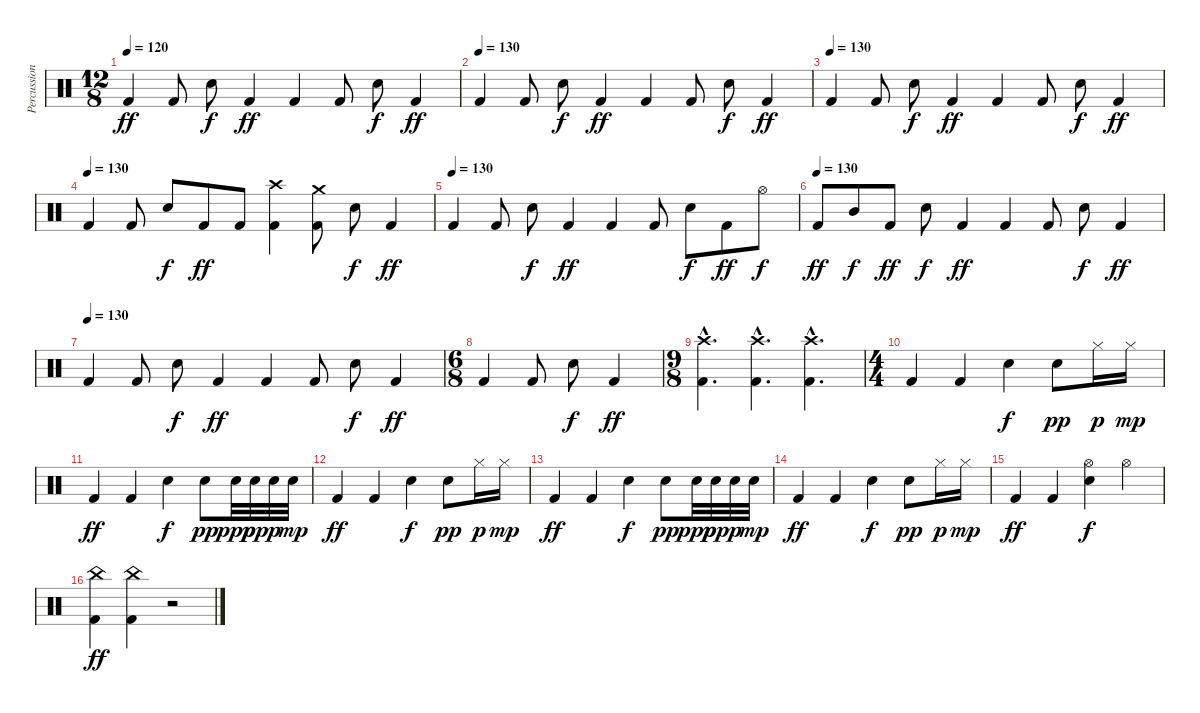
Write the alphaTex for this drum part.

\track ("Percussions" "Percussion") {instrument percussion}
\staff {score}
\articulation defaults
\ts (12 8)
\tempo 120
\tempo 130
\tempo 120
\clef neutral
\ks c "Kick (hit) 2".4{dy ff} "Kick (hit) 2".8 "Snare (hit) 2".8{dy f} "Kick (hit) 2".4{dy ff} "Kick (hit) 2".4 "Kick (hit) 2".8 "Snare (hit) 2".8{dy f} "Kick (hit) 2".4{dy ff}
|
\tempo (130)
"Kick (hit) 2".4 "Kick (hit) 2".8 "Snare (hit) 2".8{dy f} "Kick (hit) 2".4{dy ff} "Kick (hit) 2".4 "Kick (hit) 2".8 "Snare (hit) 2".8{dy f} "Kick (hit) 2".4{dy ff} |
\tempo (130)
"Kick (hit) 2".4 "Kick (hit) 2".8 "Snare (hit) 2".8{dy f} "Kick (hit) 2".4{dy ff} "Kick (hit) 2".4 "Kick (hit) 2".8 "Snare (hit) 2".8{dy f} "Kick (hit) 2".4{dy ff} |
\tempo (130)
"Kick (hit) 2".4 "Kick (hit) 2".8 "Snare (hit) 2".8{dy f} "Kick (hit) 2".8{dy ff} "Kick (hit) 2".8 ("Crash high (hit)" "Kick (hit) 2").4 ("Crash medium (hit)" "Kick (hit) 2").8 "Snare (hit) 2".8{dy f} "Kick (hit) 2".4{dy ff} |
\tempo (130)
"Kick (hit) 2".4 "Kick (hit) 2".8 "Snare (hit) 2".8{dy f} "Kick (hit) 2".4{dy ff} "Kick (hit) 2".4 "Kick (hit) 2".8 "Snare (hit) 2".8{dy f} "Kick (hit) 2".8{dy ff} "Hi-Hat (open)".8{dy f} |
\tempo (130)
"Kick (hit) 2".8{dy ff} "Mid Tom (hit)".8{dy f} "Kick (hit) 2".8{dy ff} "Snare (hit) 2".8{dy f} "Kick (hit) 2".4{dy ff} "Kick (hit) 2".4 "Kick (hit) 2".8 "Snare (hit) 2".8{dy f} "Kick (hit) 2".4{dy ff} |
\tempo (130)
"Kick (hit) 2".4 "Kick (hit) 2".8 "Snare (hit) 2".8{dy f} "Kick (hit) 2".4{dy ff} "Kick (hit) 2".4 "Kick (hit) 2".8 "Snare (hit) 2".8{dy f} "Kick (hit) 2".4{dy ff} |
\ts (6 8)
"Kick (hit) 2".4 "Kick (hit) 2".8 "Snare (hit) 2".8{dy f} "Kick (hit) 2".4{dy ff} |
\ts (9 8)
("Crash high (hit)"{hac} "Kick (hit) 2"{hac}).4{d} ("Crash high (hit)"{hac} "Kick (hit) 2"{hac}).4{d} ("Crash high (hit)"{hac} "Kick (hit) 2"{hac}).4{d} |
\ts (4 4)
"Kick (hit) 2".4 "Kick (hit) 2".4 "Snare (hit) 2".4{dy f} "Snare (hit) 2".8{dy pp} "Hi-Hat (closed)".16{dy p} "Hi-Hat (closed)".16{dy mp} |
"Kick (hit) 2".4{dy ff} "Kick (hit) 2".4 "Snare (hit) 2".4{dy f} "Snare (hit) 2".8{dy pp} "Snare (hit) 2".32{dy ppp} "Snare (hit) 2".32{dy pp} "Snare (hit) 2".32{dy p} "Snare (hit) 2".32{dy mp} |
"Kick (hit) 2".4{dy ff} "Kick (hit) 2".4 "Snare (hit) 2".4{dy f} "Snare (hit) 2".8{dy pp} "Hi-Hat (closed)".16{dy p} "Hi-Hat (closed)".16{dy mp} |
"Kick (hit) 2".4{dy ff} "Kick (hit) 2".4 "Snare (hit) 2".4{dy f} "Snare (hit) 2".8{dy pp} "Snare (hit) 2".32{dy ppp} "Snare (hit) 2".32{dy pp} "Snare (hit) 2".32{dy p} "Snare (hit) 2".32{dy mp} |
"Kick (hit) 2".4{dy ff} "Kick (hit) 2".4 "Snare (hit) 2".4{dy f} "Snare (hit) 2".8{dy pp} "Hi-Hat (closed)".16{dy p} "Hi-Hat (closed)".16{dy mp} |
"Kick (hit) 2".4{dy ff} "Kick (hit) 2".4 ("Snare (hit) 2" "Hi-Hat (open)").4{dy f} "Hi-Hat (open)".4 |
("China (hit)" "Kick (hit) 2").4{dy ff} ("China (hit)" "Kick (hit) 2").4 r.2
